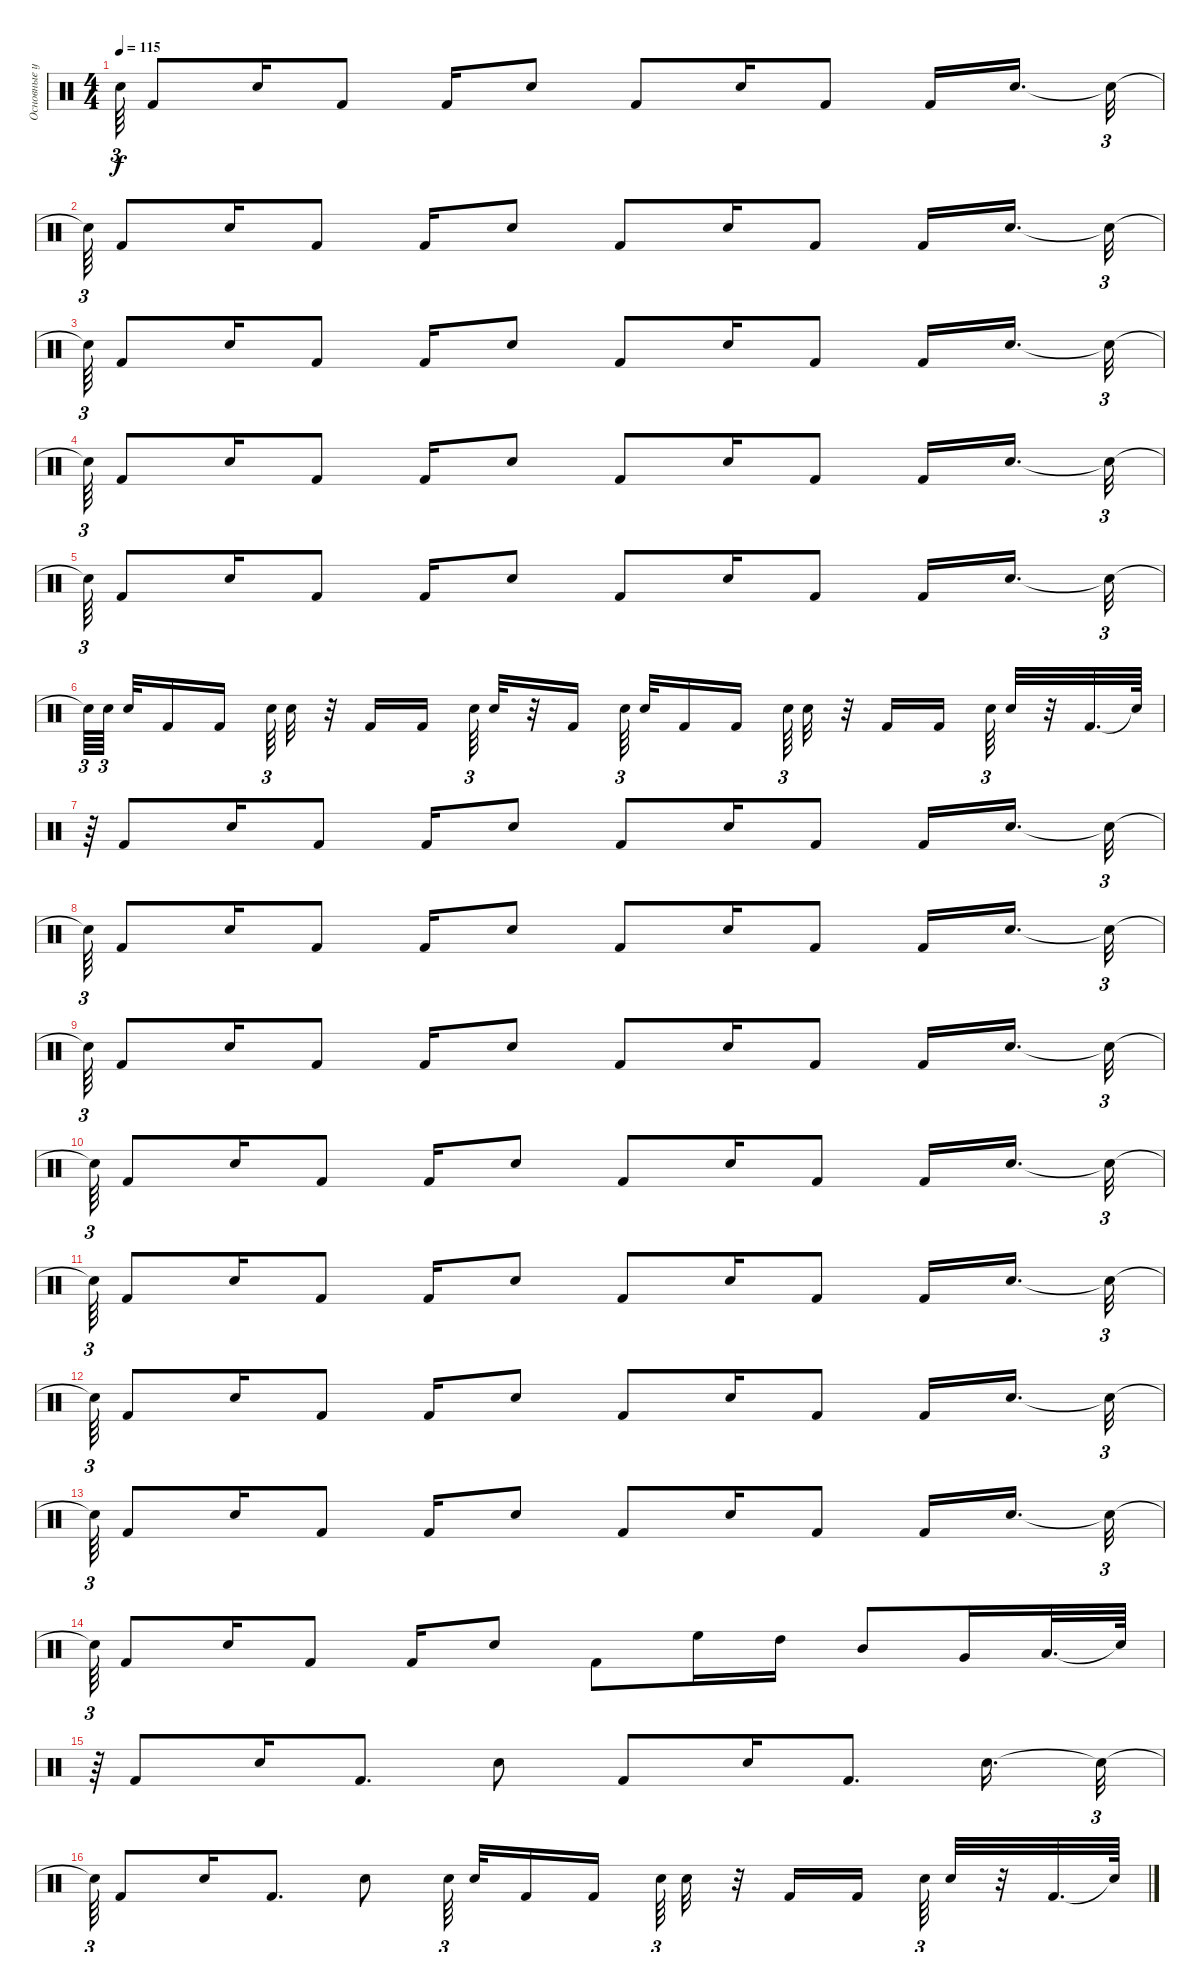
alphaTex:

\track ("Основные ударные" "Основные у") {instrument percussion}
\staff {score}
\articulation defaults
\ts (4 4)
\tempo 115
\clef neutral
\ks c "Snare (hit)"{t}.64{tu (3 2) dy f} "Kick (hit) 2".8 "Electric Snare (hit)".16 "Kick (hit) 2".8 "Kick (hit) 2".16 "Electric Snare (hit)".8 "Kick (hit) 2".8 "Electric Snare (hit)".16 "Kick (hit) 2".8 "Kick (hit) 2".16 "Electric Snare (hit)".16{d beam splitsecondary} "Snare (hit)"{t}.32{tu (3 2)}
|
"Snare (hit)"{t}.64{tu (3 2)} "Kick (hit) 2".8 "Electric Snare (hit)".16 "Kick (hit) 2".8 "Kick (hit) 2".16 "Electric Snare (hit)".8 "Kick (hit) 2".8 "Electric Snare (hit)".16 "Kick (hit) 2".8 "Kick (hit) 2".16 "Electric Snare (hit)".16{d beam splitsecondary} "Snare (hit)"{t}.32{tu (3 2)} |
"Snare (hit)"{t}.64{tu (3 2)} "Kick (hit) 2".8 "Electric Snare (hit)".16 "Kick (hit) 2".8 "Kick (hit) 2".16 "Electric Snare (hit)".8 "Kick (hit) 2".8 "Electric Snare (hit)".16 "Kick (hit) 2".8 "Kick (hit) 2".16 "Electric Snare (hit)".16{d beam splitsecondary} "Snare (hit)"{t}.32{tu (3 2)} |
"Snare (hit)"{t}.64{tu (3 2)} "Kick (hit) 2".8 "Electric Snare (hit)".16 "Kick (hit) 2".8 "Kick (hit) 2".16 "Electric Snare (hit)".8 "Kick (hit) 2".8 "Electric Snare (hit)".16 "Kick (hit) 2".8 "Kick (hit) 2".16 "Electric Snare (hit)".16{d beam splitsecondary} "Snare (hit)"{t}.32{tu (3 2)} |
"Snare (hit)"{t}.64{tu (3 2)} "Kick (hit) 2".8 "Electric Snare (hit)".16 "Kick (hit) 2".8 "Kick (hit) 2".16 "Electric Snare (hit)".8 "Kick (hit) 2".8 "Electric Snare (hit)".16 "Kick (hit) 2".8 "Kick (hit) 2".16 "Electric Snare (hit)".16{d beam splitsecondary} "Snare (hit)"{t}.32{tu (3 2)} |
"Snare (hit)"{t}.64{tu (3 2)} "Electric Snare (hit)".64{tu (3 2) beam splitsecondary} "Electric Snare (hit)".32 "Kick (hit) 2".16 "Kick (hit) 2".16{beam splitsecondary} "Electric Snare (hit)".64{tu (3 2)} "Electric Snare (hit)".32 r.32 "Kick (hit) 2".16 "Kick (hit) 2".16{beam splitsecondary} "Electric Snare (hit)".64{tu (3 2)} "Electric Snare (hit)".32 r.32 "Kick (hit) 2".16 "Electric Snare (hit)".64{tu (3 2) beam splitsecondary} "Electric Snare (hit)".32 "Kick (hit) 2".16 "Kick (hit) 2".16{beam splitsecondary} "Electric Snare (hit)".64{tu (3 2)} "Electric Snare (hit)".32 r.32 "Kick (hit) 2".16 "Kick (hit) 2".16{beam splitsecondary} "Electric Snare (hit)".64{tu (3 2)} "Electric Snare (hit)".32 r.32 "Kick (hit) 2".32{d} "Snare (hit)"{t}.64 |
r.64{tu (3 2)} "Kick (hit) 2".8 "Electric Snare (hit)".16 "Kick (hit) 2".8 "Kick (hit) 2".16 "Electric Snare (hit)".8 "Kick (hit) 2".8 "Electric Snare (hit)".16 "Kick (hit) 2".8 "Kick (hit) 2".16 "Electric Snare (hit)".16{d beam splitsecondary} "Snare (hit)"{t}.32{tu (3 2)} |
"Snare (hit)"{t}.64{tu (3 2)} "Kick (hit) 2".8 "Electric Snare (hit)".16 "Kick (hit) 2".8 "Kick (hit) 2".16 "Electric Snare (hit)".8 "Kick (hit) 2".8 "Electric Snare (hit)".16 "Kick (hit) 2".8 "Kick (hit) 2".16 "Electric Snare (hit)".16{d beam splitsecondary} "Snare (hit)"{t}.32{tu (3 2)} |
"Snare (hit)"{t}.64{tu (3 2)} "Kick (hit) 2".8 "Electric Snare (hit)".16 "Kick (hit) 2".8 "Kick (hit) 2".16 "Electric Snare (hit)".8 "Kick (hit) 2".8 "Electric Snare (hit)".16 "Kick (hit) 2".8 "Kick (hit) 2".16 "Electric Snare (hit)".16{d beam splitsecondary} "Snare (hit)"{t}.32{tu (3 2)} |
"Snare (hit)"{t}.64{tu (3 2)} "Kick (hit) 2".8 "Electric Snare (hit)".16 "Kick (hit) 2".8 "Kick (hit) 2".16 "Electric Snare (hit)".8 "Kick (hit) 2".8 "Electric Snare (hit)".16 "Kick (hit) 2".8 "Kick (hit) 2".16 "Electric Snare (hit)".16{d beam splitsecondary} "Snare (hit)"{t}.32{tu (3 2)} |
"Snare (hit)"{t}.64{tu (3 2)} "Kick (hit) 2".8 "Electric Snare (hit)".16 "Kick (hit) 2".8 "Kick (hit) 2".16 "Electric Snare (hit)".8 "Kick (hit) 2".8 "Electric Snare (hit)".16 "Kick (hit) 2".8 "Kick (hit) 2".16 "Electric Snare (hit)".16{d beam splitsecondary} "Snare (hit)"{t}.32{tu (3 2)} |
"Snare (hit)"{t}.64{tu (3 2)} "Kick (hit) 2".8 "Electric Snare (hit)".16 "Kick (hit) 2".8 "Kick (hit) 2".16 "Electric Snare (hit)".8 "Kick (hit) 2".8 "Electric Snare (hit)".16 "Kick (hit) 2".8 "Kick (hit) 2".16 "Electric Snare (hit)".16{d beam splitsecondary} "Snare (hit)"{t}.32{tu (3 2)} |
"Snare (hit)"{t}.64{tu (3 2)} "Kick (hit) 2".8 "Electric Snare (hit)".16 "Kick (hit) 2".8 "Kick (hit) 2".16 "Electric Snare (hit)".8 "Kick (hit) 2".8 "Electric Snare (hit)".16 "Kick (hit) 2".8 "Kick (hit) 2".16 "Electric Snare (hit)".16{d beam splitsecondary} "Snare (hit)"{t}.32{tu (3 2)} |
"Snare (hit)"{t}.64{tu (3 2)} "Kick (hit) 2".8 "Electric Snare (hit)".16 "Kick (hit) 2".8 "Kick (hit) 2".16 "Electric Snare (hit)".8 "Kick (hit) 2".8 "High Floor Tom (hit)".16 "High Tom (hit)".16 "Mid Tom (hit)".8 "Very Low Tom (hit)".16 "Low Floor Tom (hit)".32{d} "Snare (hit)"{t}.64 |
r.64{tu (3 2)} "Kick (hit) 2".8 "Electric Snare (hit)".16 "Kick (hit) 2".8{d} "Electric Snare (hit)".8 "Kick (hit) 2".8 "Electric Snare (hit)".16 "Kick (hit) 2".8{d} "Electric Snare (hit)".16{d} "Snare (hit)"{t}.32{tu (3 2)} |
"Snare (hit)"{t}.64{tu (3 2)} "Kick (hit) 2".8 "Electric Snare (hit)".16 "Kick (hit) 2".8{d} "Electric Snare (hit)".8 "Electric Snare (hit)".64{tu (3 2) beam splitsecondary} "Electric Snare (hit)".32 "Kick (hit) 2".16 "Kick (hit) 2".16{beam splitsecondary} "Electric Snare (hit)".64{tu (3 2)} "Electric Snare (hit)".32 r.32 "Kick (hit) 2".16 "Kick (hit) 2".16{beam splitsecondary} "Electric Snare (hit)".64{tu (3 2)} "Electric Snare (hit)".32 r.32 "Kick (hit) 2".32{d} "Snare (hit)"{t}.64
